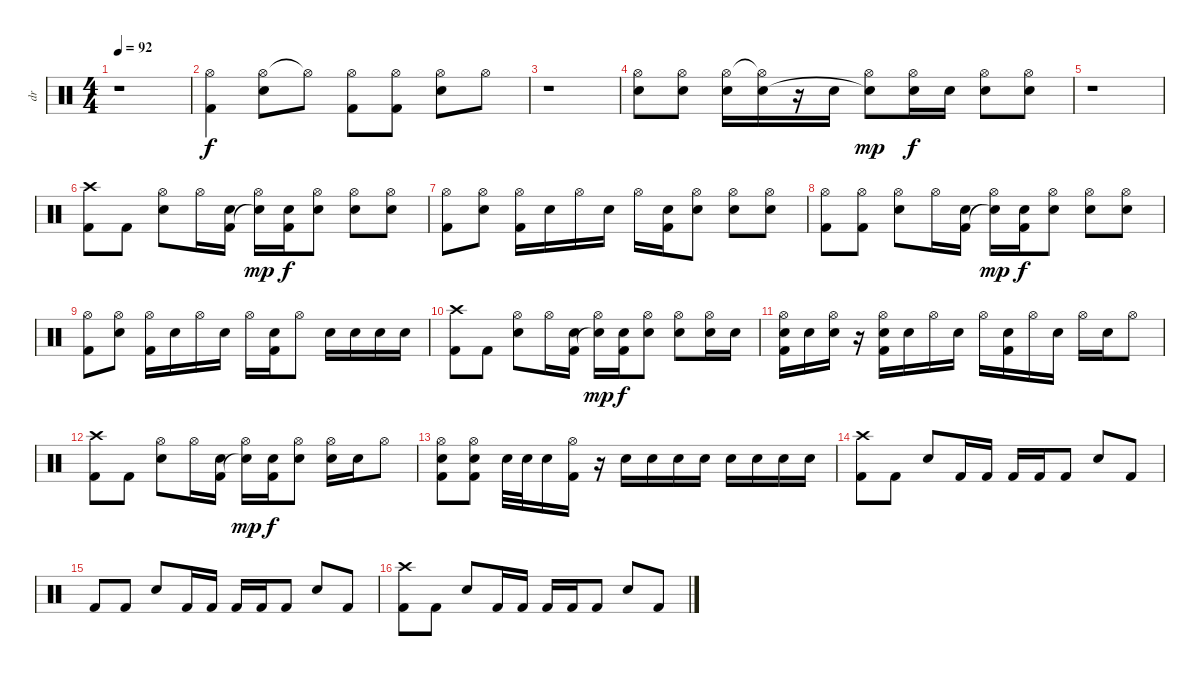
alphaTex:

\track ("dr" "dr") {instrument percussion}
\staff {score}
\articulation defaults
\ts (4 4)
\tempo 92
\clef neutral
\ks c
r.1{dy f} |
("Hi-Hat (open)" "Kick (hit) 2").4 ("Hi-Hat (open)" "Electric Snare (hit)").8 "Hi-Hat (open)"{t}.8 ("Hi-Hat (open)" "Kick (hit) 2").8 ("Hi-Hat (open)" "Kick (hit) 2").8 ("Hi-Hat (open)" "Electric Snare (hit)").8 "Hi-Hat (open)".8 |
r.1 |
("Hi-Hat (open)" "Electric Snare (hit)").8 ("Hi-Hat (open)" "Electric Snare (hit)").8 ("Hi-Hat (open)" "Electric Snare (hit)").16 ("Hi-Hat (open)"{t} "Electric Snare (hit)").16 r.16 "Electric Snare (hit)".16 ("Hi-Hat (open)" "Electric Snare (hit)"{t}).8{dy mp} ("Hi-Hat (open)" "Electric Snare (hit)").16{dy f} "Electric Snare (hit)".16 ("Hi-Hat (open)" "Electric Snare (hit)").8 ("Hi-Hat (open)" "Electric Snare (hit)").8 |
r.1 |
("Crash high (hit)" "Kick (hit) 2").8 "Kick (hit) 2".8 ("Hi-Hat (open)" "Electric Snare (hit)").8 "Hi-Hat (open)".16 ("Electric Snare (hit)" "Kick (hit) 2").16 ("Hi-Hat (open)" "Electric Snare (hit)"{t}).16{dy mp} ("Electric Snare (hit)" "Kick (hit) 2").16{dy f} ("Hi-Hat (open)" "Electric Snare (hit)").8 ("Hi-Hat (open)" "Electric Snare (hit)").8 ("Hi-Hat (open)" "Electric Snare (hit)").8 |
("Hi-Hat (open)" "Kick (hit) 2").8 ("Hi-Hat (open)" "Electric Snare (hit)").8 ("Hi-Hat (open)" "Kick (hit) 2").16 "Electric Snare (hit)".16 "Hi-Hat (open)".16 "Electric Snare (hit)".16 "Hi-Hat (open)".16 ("Electric Snare (hit)" "Kick (hit) 2").16 ("Hi-Hat (open)" "Electric Snare (hit)").8 ("Hi-Hat (open)" "Electric Snare (hit)").8 ("Hi-Hat (open)" "Electric Snare (hit)").8 |
("Hi-Hat (open)" "Kick (hit) 2").8 ("Hi-Hat (open)" "Kick (hit) 2").8 ("Hi-Hat (open)" "Electric Snare (hit)").8 "Hi-Hat (open)".16 ("Electric Snare (hit)" "Kick (hit) 2").16 ("Hi-Hat (open)" "Electric Snare (hit)"{t}).16{dy mp} ("Electric Snare (hit)" "Kick (hit) 2").16{dy f} ("Hi-Hat (open)" "Electric Snare (hit)").8 ("Hi-Hat (open)" "Electric Snare (hit)").8 ("Hi-Hat (open)" "Electric Snare (hit)").8 |
("Hi-Hat (open)" "Kick (hit) 2").8 ("Hi-Hat (open)" "Electric Snare (hit)").8 ("Hi-Hat (open)" "Kick (hit) 2").16 "Electric Snare (hit)".16 "Hi-Hat (open)".16 "Electric Snare (hit)".16 "Hi-Hat (open)".16 ("Electric Snare (hit)" "Kick (hit) 2").16 "Hi-Hat (open)".8 "Electric Snare (hit)".16 "Electric Snare (hit)".16 "Electric Snare (hit)".16 "Electric Snare (hit)".16 |
("Crash high (hit)" "Kick (hit) 2").8 "Kick (hit) 2".8 ("Hi-Hat (open)" "Electric Snare (hit)").8 "Hi-Hat (open)".16 ("Electric Snare (hit)" "Kick (hit) 2").16 ("Hi-Hat (open)" "Electric Snare (hit)"{t}).16{dy mp} ("Electric Snare (hit)" "Kick (hit) 2").16{dy f} ("Hi-Hat (open)" "Electric Snare (hit)").8 ("Hi-Hat (open)" "Electric Snare (hit)").8 ("Hi-Hat (open)" "Electric Snare (hit)").16 "Electric Snare (hit)".16 |
("Hi-Hat (open)" "Electric Snare (hit)" "Kick (hit) 2").16 "Electric Snare (hit)".16 ("Hi-Hat (open)" "Electric Snare (hit)").16 r.16 ("Hi-Hat (open)" "Electric Snare (hit)" "Kick (hit) 2").16 "Electric Snare (hit)".16 "Hi-Hat (open)".16 "Electric Snare (hit)".16 "Hi-Hat (open)".16 ("Electric Snare (hit)" "Kick (hit) 2").16 "Hi-Hat (open)".16 "Electric Snare (hit)".16 "Hi-Hat (open)".16 "Electric Snare (hit)".16 "Hi-Hat (open)".8 |
("Crash high (hit)" "Kick (hit) 2").8 "Kick (hit) 2".8 ("Hi-Hat (open)" "Electric Snare (hit)").8 "Hi-Hat (open)".16 ("Electric Snare (hit)" "Kick (hit) 2").16 ("Hi-Hat (open)" "Electric Snare (hit)"{t}).16{dy mp} ("Electric Snare (hit)" "Kick (hit) 2").16{dy f} ("Hi-Hat (open)" "Electric Snare (hit)").8 ("Hi-Hat (open)" "Electric Snare (hit)").16 "Electric Snare (hit)".16 "Hi-Hat (open)".8 |
("Hi-Hat (open)" "Electric Snare (hit)" "Kick (hit) 2").8 ("Hi-Hat (open)" "Electric Snare (hit)" "Kick (hit) 2").8 "Electric Snare (hit)".32 "Electric Snare (hit)".32 "Electric Snare (hit)".16 ("Hi-Hat (open)" "Kick (hit) 2").16 r.16 "Electric Snare (hit)".16 "Electric Snare (hit)".16 "Electric Snare (hit)".16 "Electric Snare (hit)".16 "Electric Snare (hit)".16 "Electric Snare (hit)".16 "Electric Snare (hit)".16 "Electric Snare (hit)".16 |
("Crash high (hit)" "Kick (hit) 2").8 "Kick (hit) 2".8 "Electric Snare (hit)".8 "Kick (hit) 2".16 "Kick (hit) 2".16 "Kick (hit) 2".16 "Kick (hit) 2".16 "Kick (hit) 2".8 "Electric Snare (hit)".8 "Kick (hit) 2".8 |
"Kick (hit) 2".8 "Kick (hit) 2".8 "Electric Snare (hit)".8 "Kick (hit) 2".16 "Kick (hit) 2".16 "Kick (hit) 2".16 "Kick (hit) 2".16 "Kick (hit) 2".8 "Electric Snare (hit)".8 "Kick (hit) 2".8 |
("Crash high (hit)" "Kick (hit) 2").8 "Kick (hit) 2".8 "Electric Snare (hit)".8 "Kick (hit) 2".16 "Kick (hit) 2".16 "Kick (hit) 2".16 "Kick (hit) 2".16 "Kick (hit) 2".8 "Electric Snare (hit)".8 "Kick (hit) 2".8
